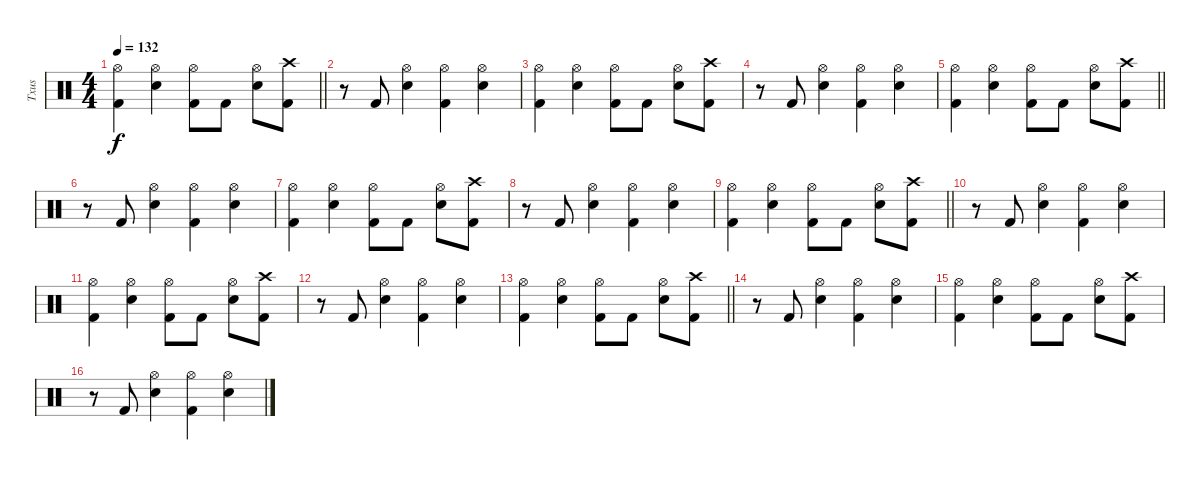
\track ("Txus" "Txus") {instrument percussion}
\staff {score}
\articulation defaults
\ts (4 4)
\tempo 132
\clef neutral
\barLineRight lightlight
\ks c
("Hi-Hat (open)" "Kick (hit) 2").4{dy f} ("Hi-Hat (open)" "Electric Snare (hit)").4 ("Hi-Hat (open)" "Kick (hit) 2").8 "Kick (hit) 2".8 ("Hi-Hat (open)" "Electric Snare (hit)").8 ("Crash high (hit)" "Kick (hit) 2").8 |
r.8 "Kick (hit) 2".8 ("Hi-Hat (open)" "Electric Snare (hit)").4 ("Hi-Hat (open)" "Kick (hit) 2").4 ("Hi-Hat (open)" "Electric Snare (hit)").4 |
("Hi-Hat (open)" "Kick (hit) 2").4 ("Hi-Hat (open)" "Electric Snare (hit)").4 ("Hi-Hat (open)" "Kick (hit) 2").8 "Kick (hit) 2".8 ("Hi-Hat (open)" "Electric Snare (hit)").8 ("Crash high (hit)" "Kick (hit) 2").8 |
r.8 "Kick (hit) 2".8 ("Hi-Hat (open)" "Electric Snare (hit)").4 ("Hi-Hat (open)" "Kick (hit) 2").4 ("Hi-Hat (open)" "Electric Snare (hit)").4 |
\barLineRight lightlight
("Hi-Hat (open)" "Kick (hit) 2").4 ("Hi-Hat (open)" "Electric Snare (hit)").4 ("Hi-Hat (open)" "Kick (hit) 2").8 "Kick (hit) 2".8 ("Hi-Hat (open)" "Electric Snare (hit)").8 ("Crash high (hit)" "Kick (hit) 2").8 |
r.8 "Kick (hit) 2".8 ("Hi-Hat (open)" "Electric Snare (hit)").4 ("Hi-Hat (open)" "Kick (hit) 2").4 ("Hi-Hat (open)" "Electric Snare (hit)").4 |
("Hi-Hat (open)" "Kick (hit) 2").4 ("Hi-Hat (open)" "Electric Snare (hit)").4 ("Hi-Hat (open)" "Kick (hit) 2").8 "Kick (hit) 2".8 ("Hi-Hat (open)" "Electric Snare (hit)").8 ("Crash high (hit)" "Kick (hit) 2").8 |
r.8 "Kick (hit) 2".8 ("Hi-Hat (open)" "Electric Snare (hit)").4 ("Hi-Hat (open)" "Kick (hit) 2").4 ("Hi-Hat (open)" "Electric Snare (hit)").4 |
\barLineRight lightlight
("Hi-Hat (open)" "Kick (hit) 2").4 ("Hi-Hat (open)" "Electric Snare (hit)").4 ("Hi-Hat (open)" "Kick (hit) 2").8 "Kick (hit) 2".8 ("Hi-Hat (open)" "Electric Snare (hit)").8 ("Crash high (hit)" "Kick (hit) 2").8 |
r.8 "Kick (hit) 2".8 ("Hi-Hat (open)" "Electric Snare (hit)").4 ("Hi-Hat (open)" "Kick (hit) 2").4 ("Hi-Hat (open)" "Electric Snare (hit)").4 |
("Hi-Hat (open)" "Kick (hit) 2").4 ("Hi-Hat (open)" "Electric Snare (hit)").4 ("Hi-Hat (open)" "Kick (hit) 2").8 "Kick (hit) 2".8 ("Hi-Hat (open)" "Electric Snare (hit)").8 ("Crash high (hit)" "Kick (hit) 2").8 |
r.8 "Kick (hit) 2".8 ("Hi-Hat (open)" "Electric Snare (hit)").4 ("Hi-Hat (open)" "Kick (hit) 2").4 ("Hi-Hat (open)" "Electric Snare (hit)").4 |
\barLineRight lightlight
("Hi-Hat (open)" "Kick (hit) 2").4 ("Hi-Hat (open)" "Electric Snare (hit)").4 ("Hi-Hat (open)" "Kick (hit) 2").8 "Kick (hit) 2".8 ("Hi-Hat (open)" "Electric Snare (hit)").8 ("Crash high (hit)" "Kick (hit) 2").8 |
r.8 "Kick (hit) 2".8 ("Hi-Hat (open)" "Electric Snare (hit)").4 ("Hi-Hat (open)" "Kick (hit) 2").4 ("Hi-Hat (open)" "Electric Snare (hit)").4 |
("Hi-Hat (open)" "Kick (hit) 2").4 ("Hi-Hat (open)" "Electric Snare (hit)").4 ("Hi-Hat (open)" "Kick (hit) 2").8 "Kick (hit) 2".8 ("Hi-Hat (open)" "Electric Snare (hit)").8 ("Crash high (hit)" "Kick (hit) 2").8 |
r.8 "Kick (hit) 2".8 ("Hi-Hat (open)" "Electric Snare (hit)").4 ("Hi-Hat (open)" "Kick (hit) 2").4 ("Hi-Hat (open)" "Electric Snare (hit)").4
